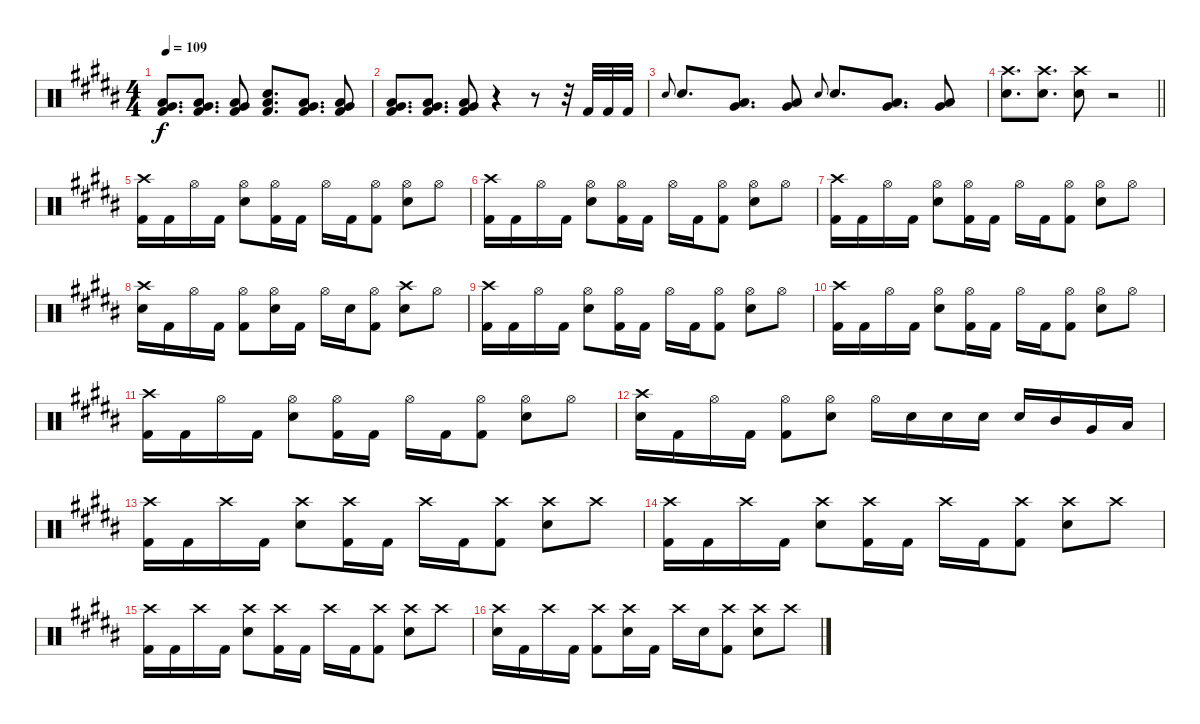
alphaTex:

\track "" {instrument percussion}
\staff {score}
\articulation defaults
\ts (4 4)
\tempo 109
\clef neutral
\ks g#minor
("Very Low Tom (hit)" "Low Floor Tom (hit)" "Kick (hit) 2").8{d dy f} ("Very Low Tom (hit)" "Low Floor Tom (hit)" "Kick (hit) 2").8{d} ("Very Low Tom (hit)" "Low Floor Tom (hit)" "Kick (hit) 2").8 ("Snare (hit) 2" "Low Floor Tom (hit)" "Kick (hit) 2").8{d} ("Very Low Tom (hit)" "Low Floor Tom (hit)" "Kick (hit) 2").8{d} ("Very Low Tom (hit)" "Low Floor Tom (hit)" "Kick (hit) 2").8 |
("Very Low Tom (hit)" "Low Floor Tom (hit)" "Kick (hit) 2").8{d} ("Very Low Tom (hit)" "Low Floor Tom (hit)" "Kick (hit) 2").8{d} ("Very Low Tom (hit)" "Low Floor Tom (hit)" "Kick (hit) 2").8 r.4 r.8 r.32 "Kick (hit) 2".32 "Kick (hit) 2".32 "Kick (hit) 2".32 |
"Snare (hit) 2".8{gr onbeat} "Snare (hit) 2".8{d} ("Very Low Tom (hit)" "Low Floor Tom (hit)").8{d} ("Very Low Tom (hit)" "Low Floor Tom (hit)").8 "Snare (hit) 2".8{gr onbeat} "Snare (hit) 2".8{d} ("Very Low Tom (hit)" "Low Floor Tom (hit)").8{d} ("Very Low Tom (hit)" "Low Floor Tom (hit)").8 |
\barLineRight lightlight
("Crash high (hit)" "Snare (hit) 2").8{d} ("Crash high (hit)" "Snare (hit) 2").8{d} ("Crash high (hit)" "Snare (hit) 2").8 r.2 |
("Crash high (hit)" "Kick (hit) 2").16 "Kick (hit) 2".16 "Hi-Hat (open)".16 "Kick (hit) 2".16 ("Hi-Hat (open)" "Snare (hit) 2").8 ("Hi-Hat (open)" "Kick (hit) 2").16 "Kick (hit) 2".16 "Hi-Hat (open)".16 "Kick (hit) 2".16 ("Hi-Hat (open)" "Kick (hit) 2").8 ("Hi-Hat (open)" "Snare (hit) 2").8 "Hi-Hat (open)".8 |
("Crash high (hit)" "Kick (hit) 2").16 "Kick (hit) 2".16 "Hi-Hat (open)".16 "Kick (hit) 2".16 ("Hi-Hat (open)" "Snare (hit) 2").8 ("Hi-Hat (open)" "Kick (hit) 2").16 "Kick (hit) 2".16 "Hi-Hat (open)".16 "Kick (hit) 2".16 ("Hi-Hat (open)" "Kick (hit) 2").8 ("Hi-Hat (open)" "Snare (hit) 2").8 "Hi-Hat (open)".8 |
("Crash high (hit)" "Kick (hit) 2").16 "Kick (hit) 2".16 "Hi-Hat (open)".16 "Kick (hit) 2".16 ("Hi-Hat (open)" "Snare (hit) 2").8 ("Hi-Hat (open)" "Kick (hit) 2").16 "Kick (hit) 2".16 "Hi-Hat (open)".16 "Kick (hit) 2".16 ("Hi-Hat (open)" "Kick (hit) 2").8 ("Hi-Hat (open)" "Snare (hit) 2").8 "Hi-Hat (open)".8 |
("Crash high (hit)" "Snare (hit) 2").16 "Kick (hit) 2".16 "Hi-Hat (open)".16 "Kick (hit) 2".16 ("Hi-Hat (open)" "Kick (hit) 2").8 ("Hi-Hat (open)" "Snare (hit) 2").16 "Kick (hit) 2".16 "Hi-Hat (open)".16 "Snare (hit) 2".16 ("Hi-Hat (open)" "Kick (hit) 2").8 ("Crash high (hit)" "Snare (hit) 2").8 "Hi-Hat (open)".8 |
("Crash high (hit)" "Kick (hit) 2").16 "Kick (hit) 2".16 "Hi-Hat (open)".16 "Kick (hit) 2".16 ("Hi-Hat (open)" "Snare (hit) 2").8 ("Hi-Hat (open)" "Kick (hit) 2").16 "Kick (hit) 2".16 "Hi-Hat (open)".16 "Kick (hit) 2".16 ("Hi-Hat (open)" "Kick (hit) 2").8 ("Hi-Hat (open)" "Snare (hit) 2").8 "Hi-Hat (open)".8 |
("Crash high (hit)" "Kick (hit) 2").16 "Kick (hit) 2".16 "Hi-Hat (open)".16 "Kick (hit) 2".16 ("Hi-Hat (open)" "Snare (hit) 2").8 ("Hi-Hat (open)" "Kick (hit) 2").16 "Kick (hit) 2".16 "Hi-Hat (open)".16 "Kick (hit) 2".16 ("Hi-Hat (open)" "Kick (hit) 2").8 ("Hi-Hat (open)" "Snare (hit) 2").8 "Hi-Hat (open)".8 |
("Crash high (hit)" "Kick (hit) 2").16 "Kick (hit) 2".16 "Hi-Hat (open)".16 "Kick (hit) 2".16 ("Hi-Hat (open)" "Snare (hit) 2").8 ("Hi-Hat (open)" "Kick (hit) 2").16 "Kick (hit) 2".16 "Hi-Hat (open)".16 "Kick (hit) 2".16 ("Hi-Hat (open)" "Kick (hit) 2").8 ("Hi-Hat (open)" "Snare (hit) 2").8 "Hi-Hat (open)".8 |
("Crash high (hit)" "Snare (hit) 2").16 "Kick (hit) 2".16 "Hi-Hat (open)".16 "Kick (hit) 2".16 ("Hi-Hat (open)" "Kick (hit) 2").8 ("Hi-Hat (open)" "Snare (hit) 2").8 "Hi-Hat (open)".16 "Snare (hit) 2".16 "Snare (hit) 2".16 "Snare (hit) 2".16 "Snare (hit) 2".16 "Mid Tom (hit)".16 "Very Low Tom (hit)".16 "Low Floor Tom (hit)".16 |
("Crash high (hit)" "Kick (hit) 2").16 "Kick (hit) 2".16 "Crash high (hit)".16 "Kick (hit) 2".16 ("Crash high (hit)" "Snare (hit) 2").8 ("Crash high (hit)" "Kick (hit) 2").16 "Kick (hit) 2".16 "Crash high (hit)".16 "Kick (hit) 2".16 ("Crash high (hit)" "Kick (hit) 2").8 ("Crash high (hit)" "Snare (hit) 2").8 "Crash high (hit)".8 |
("Crash high (hit)" "Kick (hit) 2").16 "Kick (hit) 2".16 "Crash high (hit)".16 "Kick (hit) 2".16 ("Crash high (hit)" "Snare (hit) 2").8 ("Crash high (hit)" "Kick (hit) 2").16 "Kick (hit) 2".16 "Crash high (hit)".16 "Kick (hit) 2".16 ("Crash high (hit)" "Kick (hit) 2").8 ("Crash high (hit)" "Snare (hit) 2").8 "Crash high (hit)".8 |
("Crash high (hit)" "Kick (hit) 2").16 "Kick (hit) 2".16 "Crash high (hit)".16 "Kick (hit) 2".16 ("Crash high (hit)" "Snare (hit) 2").8 ("Crash high (hit)" "Kick (hit) 2").16 "Kick (hit) 2".16 "Crash high (hit)".16 "Kick (hit) 2".16 ("Crash high (hit)" "Kick (hit) 2").8 ("Crash high (hit)" "Snare (hit) 2").8 "Crash high (hit)".8 |
("Crash high (hit)" "Snare (hit) 2").16 "Kick (hit) 2".16 "Crash high (hit)".16 "Kick (hit) 2".16 ("Crash high (hit)" "Kick (hit) 2").8 ("Crash high (hit)" "Snare (hit) 2").16 "Kick (hit) 2".16 "Crash high (hit)".16 "Snare (hit) 2".16 ("Crash high (hit)" "Kick (hit) 2").8 ("Crash high (hit)" "Snare (hit) 2").8 "Crash high (hit)".8
